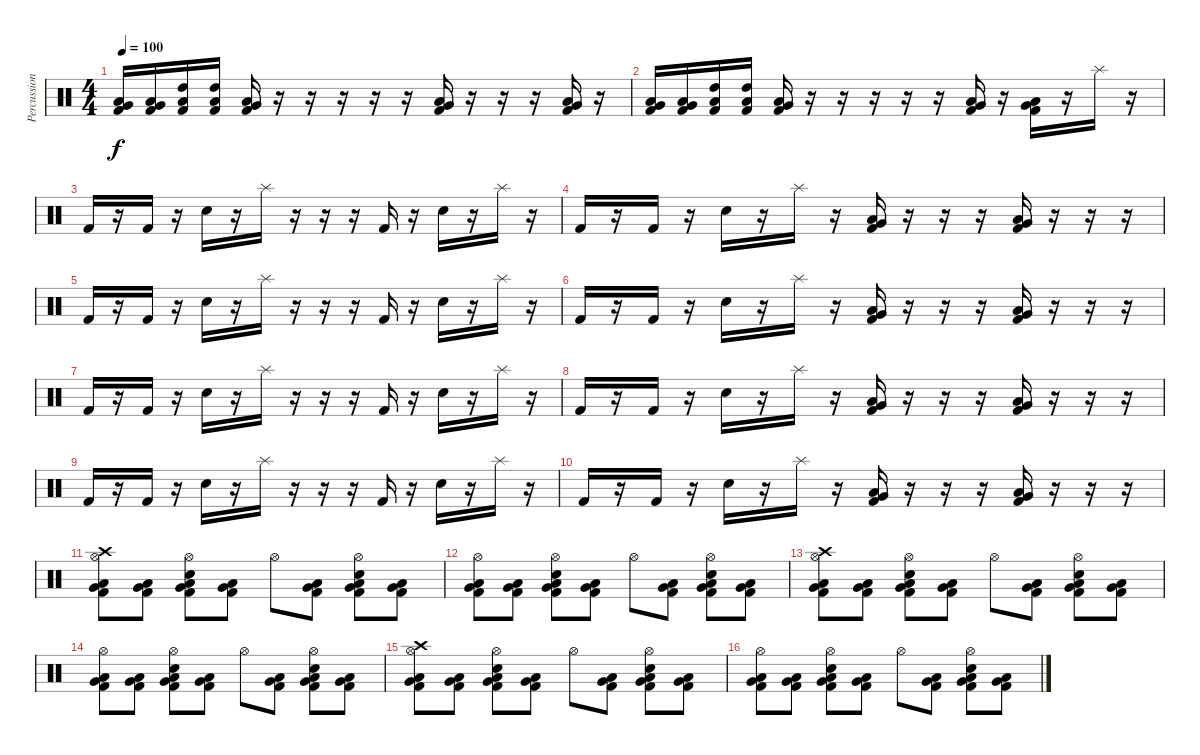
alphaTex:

\track ("Percussion" "Percussion") {instrument percussion}
\staff {score}
\articulation defaults
\ts (4 4)
\tempo 100
\clef neutral
\ks c
("Low Floor Tom (hit)" "Very Low Tom (hit)" "Kick (hit) 2").16{dy f} ("Very Low Tom (hit)" "Low Tom (hit)" "Kick (hit) 2").16 ("Low Tom (hit)" "High Tom (hit)" "Kick (hit) 2").16 ("High Tom (hit)" "Low Tom (hit)" "Kick (hit) 2").16 ("Low Tom (hit)" "Very Low Tom (hit)" "Kick (hit) 2").16 r.16 r.16 r.16 r.16 r.16 ("Very Low Tom (hit)" "Low Tom (hit)" "Kick (hit) 2").16 r.16 r.16 r.16 ("Very Low Tom (hit)" "Low Tom (hit)" "Kick (hit) 2").16 r.16 |
("Low Floor Tom (hit)" "Very Low Tom (hit)" "Kick (hit) 2").16 ("Very Low Tom (hit)" "Low Tom (hit)" "Kick (hit) 2").16 ("Low Tom (hit)" "High Tom (hit)" "Kick (hit) 2").16 ("High Tom (hit)" "Low Tom (hit)" "Kick (hit) 2").16 ("Low Tom (hit)" "Very Low Tom (hit)" "Kick (hit) 2").16 r.16 r.16 r.16 r.16 r.16 ("Very Low Tom (hit)" "Low Tom (hit)" "Kick (hit) 2").16 r.16 ("Very Low Tom (hit)" "Low Tom (hit)" "Kick (hit) 2").16 r.16 "Splash (hit)".16 r.16 |
"Kick (hit) 2".16 r.16 "Kick (hit) 2".16 r.16 "Electric Snare (hit)".16 r.16 "Splash (hit)".16 r.16 r.16 r.16 "Kick (hit) 2".16 r.16 "Electric Snare (hit)".16 r.16 "Splash (hit)".16 r.16 |
"Kick (hit) 2".16 r.16 "Kick (hit) 2".16 r.16 "Electric Snare (hit)".16 r.16 "Splash (hit)".16 r.16 ("Low Tom (hit)" "Very Low Tom (hit)" "Kick (hit) 2").16 r.16 r.16 r.16 ("Very Low Tom (hit)" "Low Floor Tom (hit)" "Kick (hit) 2").16 r.16 r.16 r.16 |
"Kick (hit) 2".16 r.16 "Kick (hit) 2".16 r.16 "Electric Snare (hit)".16 r.16 "Splash (hit)".16 r.16 r.16 r.16 "Kick (hit) 2".16 r.16 "Electric Snare (hit)".16 r.16 "Splash (hit)".16 r.16 |
"Kick (hit) 2".16 r.16 "Kick (hit) 2".16 r.16 "Electric Snare (hit)".16 r.16 "Splash (hit)".16 r.16 ("Very Low Tom (hit)" "Low Floor Tom (hit)" "Kick (hit) 2").16 r.16 r.16 r.16 ("Low Tom (hit)" "Very Low Tom (hit)" "Kick (hit) 2").16 r.16 r.16 r.16 |
"Kick (hit) 2".16 r.16 "Kick (hit) 2".16 r.16 "Electric Snare (hit)".16 r.16 "Splash (hit)".16 r.16 r.16 r.16 "Kick (hit) 2".16 r.16 "Electric Snare (hit)".16 r.16 "Splash (hit)".16 r.16 |
"Kick (hit) 2".16 r.16 "Kick (hit) 2".16 r.16 "Electric Snare (hit)".16 r.16 "Splash (hit)".16 r.16 ("Low Tom (hit)" "Very Low Tom (hit)" "Kick (hit) 2").16 r.16 r.16 r.16 ("Very Low Tom (hit)" "Low Floor Tom (hit)" "Kick (hit) 2").16 r.16 r.16 r.16 |
"Kick (hit) 2".16 r.16 "Kick (hit) 2".16 r.16 "Electric Snare (hit)".16 r.16 "Splash (hit)".16 r.16 r.16 r.16 "Kick (hit) 2".16 r.16 "Electric Snare (hit)".16 r.16 "Splash (hit)".16 r.16 |
"Kick (hit) 2".16 r.16 "Kick (hit) 2".16 r.16 "Electric Snare (hit)".16 r.16 "Splash (hit)".16 r.16 ("Very Low Tom (hit)" "Low Floor Tom (hit)" "Kick (hit) 2").16 r.16 r.16 r.16 ("Low Tom (hit)" "Very Low Tom (hit)" "Kick (hit) 2").16 r.16 r.16 r.16 |
("Crash high (hit)" "Hi-Hat (open)" "Low Tom (hit)" "Very Low Tom (hit)" "Kick (hit) 2").8 ("Low Tom (hit)" "Very Low Tom (hit)" "Kick (hit) 2").8 ("Hi-Hat (open)" "Very Low Tom (hit)" "Low Floor Tom (hit)" "Electric Snare (hit)" "Kick (hit) 2").8 ("Low Tom (hit)" "Very Low Tom (hit)" "Kick (hit) 2").8 "Hi-Hat (open)".8 ("Low Tom (hit)" "Very Low Tom (hit)" "Kick (hit) 2").8 ("Hi-Hat (open)" "Very Low Tom (hit)" "Low Floor Tom (hit)" "Electric Snare (hit)" "Kick (hit) 2").8 ("Low Tom (hit)" "Very Low Tom (hit)" "Kick (hit) 2").8 |
("Hi-Hat (open)" "Low Tom (hit)" "Very Low Tom (hit)" "Kick (hit) 2").8 ("Low Tom (hit)" "Very Low Tom (hit)" "Kick (hit) 2").8 ("Hi-Hat (open)" "Very Low Tom (hit)" "Low Floor Tom (hit)" "Electric Snare (hit)" "Kick (hit) 2").8 ("Low Tom (hit)" "Very Low Tom (hit)" "Kick (hit) 2").8 "Hi-Hat (open)".8 ("Low Tom (hit)" "Very Low Tom (hit)" "Kick (hit) 2").8 ("Hi-Hat (open)" "Very Low Tom (hit)" "Low Floor Tom (hit)" "Electric Snare (hit)" "Kick (hit) 2").8 ("Low Tom (hit)" "Very Low Tom (hit)" "Kick (hit) 2").8 |
("Crash high (hit)" "Hi-Hat (open)" "Low Tom (hit)" "Very Low Tom (hit)" "Kick (hit) 2").8 ("Low Tom (hit)" "Very Low Tom (hit)" "Kick (hit) 2").8 ("Hi-Hat (open)" "Very Low Tom (hit)" "Low Floor Tom (hit)" "Electric Snare (hit)" "Kick (hit) 2").8 ("Low Tom (hit)" "Very Low Tom (hit)" "Kick (hit) 2").8 "Hi-Hat (open)".8 ("Low Tom (hit)" "Very Low Tom (hit)" "Kick (hit) 2").8 ("Hi-Hat (open)" "Very Low Tom (hit)" "Low Floor Tom (hit)" "Electric Snare (hit)" "Kick (hit) 2").8 ("Low Tom (hit)" "Very Low Tom (hit)" "Kick (hit) 2").8 |
("Hi-Hat (open)" "Low Tom (hit)" "Very Low Tom (hit)" "Kick (hit) 2").8 ("Low Tom (hit)" "Very Low Tom (hit)" "Kick (hit) 2").8 ("Hi-Hat (open)" "Very Low Tom (hit)" "Low Floor Tom (hit)" "Electric Snare (hit)" "Kick (hit) 2").8 ("Low Tom (hit)" "Very Low Tom (hit)" "Kick (hit) 2").8 "Hi-Hat (open)".8 ("Low Tom (hit)" "Very Low Tom (hit)" "Kick (hit) 2").8 ("Hi-Hat (open)" "Very Low Tom (hit)" "Low Floor Tom (hit)" "Electric Snare (hit)" "Kick (hit) 2").8 ("Low Tom (hit)" "Very Low Tom (hit)" "Kick (hit) 2").8 |
("Crash high (hit)" "Hi-Hat (open)" "Low Tom (hit)" "Very Low Tom (hit)" "Kick (hit) 2").8 ("Low Tom (hit)" "Very Low Tom (hit)" "Kick (hit) 2").8 ("Hi-Hat (open)" "Very Low Tom (hit)" "Low Floor Tom (hit)" "Electric Snare (hit)" "Kick (hit) 2").8 ("Low Tom (hit)" "Very Low Tom (hit)" "Kick (hit) 2").8 "Hi-Hat (open)".8 ("Low Tom (hit)" "Very Low Tom (hit)" "Kick (hit) 2").8 ("Hi-Hat (open)" "Very Low Tom (hit)" "Low Floor Tom (hit)" "Electric Snare (hit)" "Kick (hit) 2").8 ("Low Tom (hit)" "Very Low Tom (hit)" "Kick (hit) 2").8 |
("Hi-Hat (open)" "Low Tom (hit)" "Very Low Tom (hit)" "Kick (hit) 2").8 ("Low Tom (hit)" "Very Low Tom (hit)" "Kick (hit) 2").8 ("Hi-Hat (open)" "Very Low Tom (hit)" "Low Floor Tom (hit)" "Electric Snare (hit)" "Kick (hit) 2").8 ("Low Tom (hit)" "Very Low Tom (hit)" "Kick (hit) 2").8 "Hi-Hat (open)".8 ("Low Tom (hit)" "Very Low Tom (hit)" "Kick (hit) 2").8 ("Hi-Hat (open)" "Very Low Tom (hit)" "Low Floor Tom (hit)" "Electric Snare (hit)" "Kick (hit) 2").8 ("Low Tom (hit)" "Very Low Tom (hit)" "Kick (hit) 2").8
